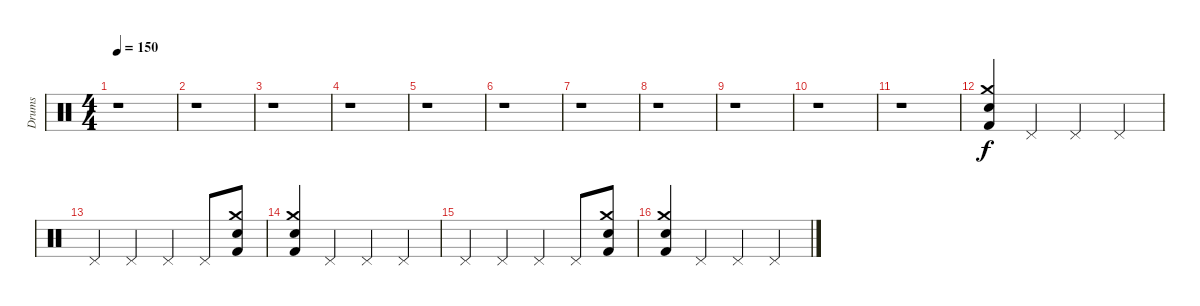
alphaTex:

\track ("Drums" "Drums") {instrument percussion}
\staff {score}
\articulation defaults
\ts (4 4)
\tempo 150
\clef neutral
\ks c
r.1{dy f} |
r.1 |
r.1 |
r.1 |
r.1 |
r.1 |
r.1 |
r.1 |
r.1 |
r.1 |
r.1 |
("Snare (hit) 2" "Crash medium (hit)" "Kick (hit) 2").4 "Pedal Hi-Hat (hit)".4 "Pedal Hi-Hat (hit)".4 "Pedal Hi-Hat (hit)".4 |
"Pedal Hi-Hat (hit)".4 "Pedal Hi-Hat (hit)".4 "Pedal Hi-Hat (hit)".4 "Pedal Hi-Hat (hit)".8 ("Snare (hit) 2" "Crash medium (hit)" "Kick (hit) 2").8 |
("Snare (hit) 2" "Crash medium (hit)" "Kick (hit) 2").4 "Pedal Hi-Hat (hit)".4 "Pedal Hi-Hat (hit)".4 "Pedal Hi-Hat (hit)".4 |
"Pedal Hi-Hat (hit)".4 "Pedal Hi-Hat (hit)".4 "Pedal Hi-Hat (hit)".4 "Pedal Hi-Hat (hit)".8 ("Snare (hit) 2" "Crash medium (hit)" "Kick (hit) 2").8 |
("Snare (hit) 2" "Crash medium (hit)" "Kick (hit) 2").4 "Pedal Hi-Hat (hit)".4 "Pedal Hi-Hat (hit)".4 "Pedal Hi-Hat (hit)".4
